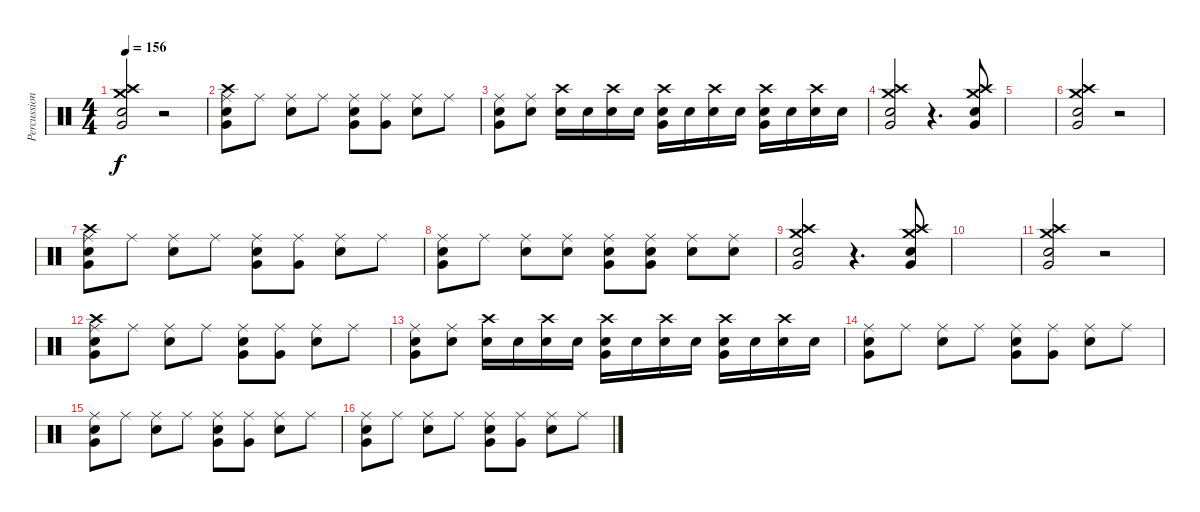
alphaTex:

\track ("Percussions" "Percussion") {instrument percussion}
\staff {score}
\articulation defaults
\ts (4 4)
\tempo 156
\clef neutral
\ks c
("Very Low Tom (hit)" "Crash high (hit)" "Crash medium (hit)" "Electric Snare (hit)").2{dy f} r.2 |
("Very Low Tom (hit)" "Crash high (hit)" "Electric Snare (hit)" "Ride (middle)").8 "Ride (middle)".8 ("Electric Snare (hit)" "Ride (middle)").8 "Ride (middle)".8 ("Very Low Tom (hit)" "Electric Snare (hit)" "Ride (middle)").8 ("Very Low Tom (hit)" "Ride (middle)").8 ("Electric Snare (hit)" "Ride (middle)").8 "Ride (middle)".8 |
("Very Low Tom (hit)" "Electric Snare (hit)" "Ride (middle)").8 ("Electric Snare (hit)" "Ride (middle)").8 ("Electric Snare (hit)" "Crash high (hit)").16 "Electric Snare (hit)".16 ("Electric Snare (hit)" "Crash high (hit)").16 "Electric Snare (hit)".16 ("Very Low Tom (hit)" "Electric Snare (hit)" "Crash high (hit)").16 "Electric Snare (hit)".16 ("Electric Snare (hit)" "Crash high (hit)").16 "Electric Snare (hit)".16 ("Very Low Tom (hit)" "Electric Snare (hit)" "Crash high (hit)").16 "Electric Snare (hit)".16 ("Electric Snare (hit)" "Crash high (hit)").16 "Electric Snare (hit)".16 |
("Very Low Tom (hit)" "Crash high (hit)" "Crash medium (hit)" "Electric Snare (hit)").2 r.4{d} ("Very Low Tom (hit)" "Crash high (hit)" "Crash medium (hit)" "Electric Snare (hit)").8 |
|
("Very Low Tom (hit)" "Crash high (hit)" "Crash medium (hit)" "Electric Snare (hit)").2 r.2 |
("Very Low Tom (hit)" "Crash high (hit)" "Electric Snare (hit)" "Ride (middle)").8 "Ride (middle)".8 ("Electric Snare (hit)" "Ride (middle)").8 "Ride (middle)".8 ("Very Low Tom (hit)" "Electric Snare (hit)" "Ride (middle)").8 ("Very Low Tom (hit)" "Ride (middle)").8 ("Electric Snare (hit)" "Ride (middle)").8 "Ride (middle)".8 |
("Very Low Tom (hit)" "Electric Snare (hit)" "Ride (middle)").8 "Ride (middle)".8 ("Electric Snare (hit)" "Ride (middle)").8 ("Electric Snare (hit)" "Ride (middle)").8 ("Very Low Tom (hit)" "Electric Snare (hit)" "Ride (middle)").8 ("Very Low Tom (hit)" "Electric Snare (hit)" "Ride (middle)").8 ("Electric Snare (hit)" "Ride (middle)").8 ("Electric Snare (hit)" "Ride (middle)").8 |
("Very Low Tom (hit)" "Crash high (hit)" "Crash medium (hit)" "Electric Snare (hit)").2 r.4{d} ("Very Low Tom (hit)" "Crash high (hit)" "Crash medium (hit)" "Electric Snare (hit)").8 |
|
("Very Low Tom (hit)" "Crash high (hit)" "Crash medium (hit)" "Electric Snare (hit)").2 r.2 |
("Very Low Tom (hit)" "Crash high (hit)" "Electric Snare (hit)" "Ride (middle)").8 "Ride (middle)".8 ("Electric Snare (hit)" "Ride (middle)").8 "Ride (middle)".8 ("Very Low Tom (hit)" "Electric Snare (hit)" "Ride (middle)").8 ("Very Low Tom (hit)" "Ride (middle)").8 ("Electric Snare (hit)" "Ride (middle)").8 "Ride (middle)".8 |
("Very Low Tom (hit)" "Electric Snare (hit)" "Ride (middle)").8 ("Electric Snare (hit)" "Ride (middle)").8 ("Electric Snare (hit)" "Crash high (hit)").16 "Electric Snare (hit)".16 ("Electric Snare (hit)" "Crash high (hit)").16 "Electric Snare (hit)".16 ("Very Low Tom (hit)" "Electric Snare (hit)" "Crash high (hit)").16 "Electric Snare (hit)".16 ("Electric Snare (hit)" "Crash high (hit)").16 "Electric Snare (hit)".16 ("Very Low Tom (hit)" "Electric Snare (hit)" "Crash high (hit)").16 "Electric Snare (hit)".16 ("Electric Snare (hit)" "Crash high (hit)").16 "Electric Snare (hit)".16 |
("Very Low Tom (hit)" "Electric Snare (hit)" "Ride (middle)").8 "Ride (middle)".8 ("Electric Snare (hit)" "Ride (middle)").8 "Ride (middle)".8 ("Very Low Tom (hit)" "Electric Snare (hit)" "Ride (middle)").8 ("Very Low Tom (hit)" "Ride (middle)").8 ("Electric Snare (hit)" "Ride (middle)").8 "Ride (middle)".8 |
("Very Low Tom (hit)" "Electric Snare (hit)" "Ride (middle)").8 "Ride (middle)".8 ("Electric Snare (hit)" "Ride (middle)").8 "Ride (middle)".8 ("Very Low Tom (hit)" "Electric Snare (hit)" "Ride (middle)").8 ("Very Low Tom (hit)" "Ride (middle)").8 ("Electric Snare (hit)" "Ride (middle)").8 "Ride (middle)".8 |
("Very Low Tom (hit)" "Electric Snare (hit)" "Ride (middle)").8 "Ride (middle)".8 ("Electric Snare (hit)" "Ride (middle)").8 "Ride (middle)".8 ("Very Low Tom (hit)" "Electric Snare (hit)" "Ride (middle)").8 ("Very Low Tom (hit)" "Ride (middle)").8 ("Electric Snare (hit)" "Ride (middle)").8 "Ride (middle)".8
